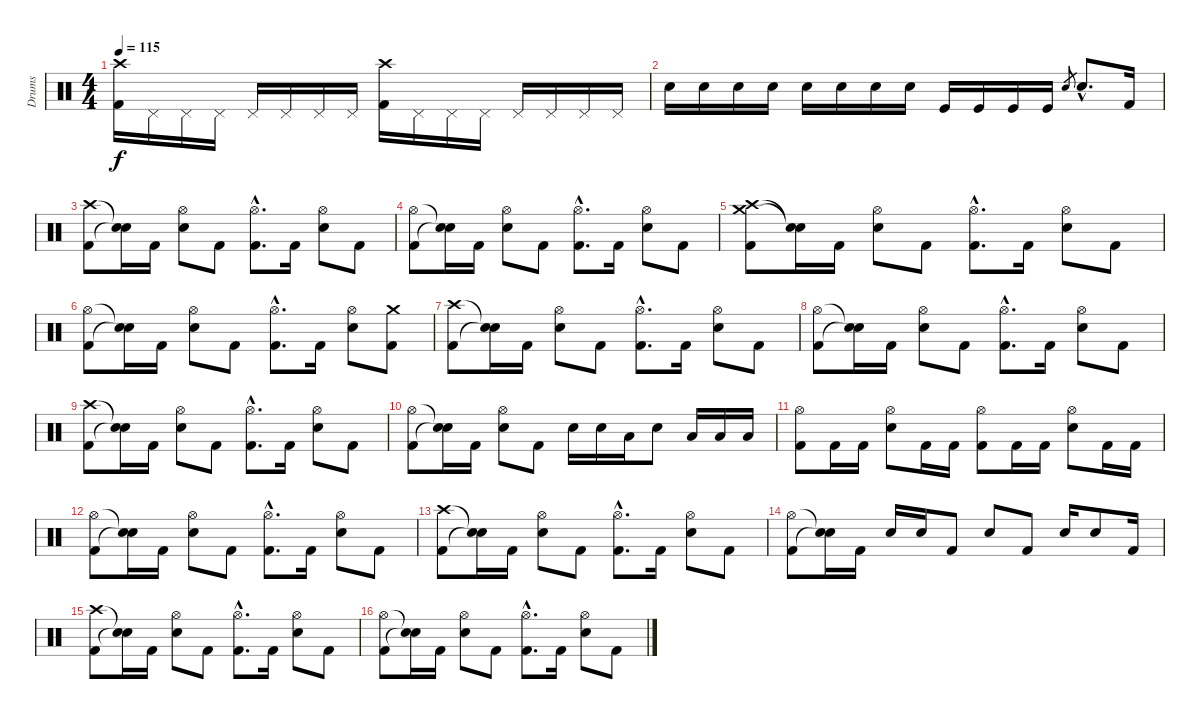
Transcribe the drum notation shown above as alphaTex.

\track ("Drums" "Drums") {instrument percussion}
\staff {score}
\articulation defaults
\ts (4 4)
\tempo 115
\clef neutral
\ks c
("Crash high (hit)" "Kick (hit) 2").16{dy f} "Pedal Hi-Hat (hit)".16 "Pedal Hi-Hat (hit)".16 "Pedal Hi-Hat (hit)".16 "Pedal Hi-Hat (hit)".16 "Pedal Hi-Hat (hit)".16 "Pedal Hi-Hat (hit)".16 "Pedal Hi-Hat (hit)".16 ("Crash high (hit)" "Kick (hit) 2").16 "Pedal Hi-Hat (hit)".16 "Pedal Hi-Hat (hit)".16 "Pedal Hi-Hat (hit)".16 "Pedal Hi-Hat (hit)".16 "Pedal Hi-Hat (hit)".16 "Pedal Hi-Hat (hit)".16 "Pedal Hi-Hat (hit)".16 |
"Electric Snare (hit)".16 "Electric Snare (hit)".16 "Electric Snare (hit)".16 "Electric Snare (hit)".16 "Snare (hit) 2".16 "Snare (hit) 2".16 "Snare (hit) 2".16 "Snare (hit) 2".16 "Kick (hit)".16 "Kick (hit)".16 "Kick (hit)".16 "Kick (hit)".16 "Snare (hit) 2".8{gr} "Snare (hit) 2"{hac}.8{d} "Kick (hit) 2".16 |
("Crash high (hit)" "Kick (hit) 2").8 ("Snare (hit)"{t} "Snare (hit)"{t}).16 "Kick (hit) 2".16 ("Hi-Hat (open)" "Snare (hit) 2").8 "Kick (hit) 2".8 ("Hi-Hat (open)"{hac} "Kick (hit) 2"{hac}).8{d} "Kick (hit) 2".16 ("Hi-Hat (open)" "Snare (hit) 2").8 "Kick (hit) 2".8 |
("Hi-Hat (open)" "Kick (hit) 2").8 ("Snare (hit)"{t} "Snare (hit)"{t}).16 "Kick (hit) 2".16 ("Hi-Hat (open)" "Snare (hit) 2").8 "Kick (hit) 2".8 ("Hi-Hat (open)"{hac} "Kick (hit) 2"{hac}).8{d} "Kick (hit) 2".16 ("Hi-Hat (open)" "Snare (hit) 2").8 "Kick (hit) 2".8 |
("Crash high (hit)" "Crash medium (hit)" "Kick (hit) 2").8 ("Snare (hit)"{t} "Snare (hit)"{t}).16 "Kick (hit) 2".16 ("Hi-Hat (open)" "Snare (hit) 2").8 "Kick (hit) 2".8 ("Hi-Hat (open)"{hac} "Kick (hit) 2"{hac}).8{d} "Kick (hit) 2".16 ("Hi-Hat (open)" "Snare (hit) 2").8 "Kick (hit) 2".8 |
("Hi-Hat (open)" "Kick (hit) 2").8 ("Snare (hit)"{t} "Snare (hit)"{t}).16 "Kick (hit) 2".16 ("Hi-Hat (open)" "Snare (hit) 2").8 "Kick (hit) 2".8 ("Hi-Hat (open)"{hac} "Kick (hit) 2"{hac}).8{d} "Kick (hit) 2".16 ("Hi-Hat (open)" "Snare (hit) 2").8 ("Crash medium (hit)" "Kick (hit) 2").8 |
("Crash high (hit)" "Kick (hit) 2").8 ("Snare (hit)"{t} "Snare (hit)"{t}).16 "Kick (hit) 2".16 ("Hi-Hat (open)" "Snare (hit) 2").8 "Kick (hit) 2".8 ("Hi-Hat (open)"{hac} "Kick (hit) 2"{hac}).8{d} "Kick (hit) 2".16 ("Hi-Hat (open)" "Snare (hit) 2").8 "Kick (hit) 2".8 |
("Hi-Hat (open)" "Kick (hit) 2").8 ("Snare (hit)"{t} "Snare (hit)"{t}).16 "Kick (hit) 2".16 ("Hi-Hat (open)" "Snare (hit) 2").8 "Kick (hit) 2".8 ("Hi-Hat (open)"{hac} "Kick (hit) 2"{hac}).8{d} "Kick (hit) 2".16 ("Hi-Hat (open)" "Snare (hit) 2").8 "Kick (hit) 2".8 |
("Crash high (hit)" "Kick (hit) 2").8 ("Snare (hit)"{t} "Snare (hit)"{t}).16 "Kick (hit) 2".16 ("Hi-Hat (open)" "Snare (hit) 2").8 "Kick (hit) 2".8 ("Hi-Hat (open)"{hac} "Kick (hit) 2"{hac}).8{d} "Kick (hit) 2".16 ("Hi-Hat (open)" "Snare (hit) 2").8 "Kick (hit) 2".8 |
("Hi-Hat (open)" "Kick (hit) 2").8 ("Snare (hit)"{t} "Snare (hit)"{t}).16 "Kick (hit) 2".16 ("Hi-Hat (open)" "Snare (hit) 2").8 "Kick (hit) 2".8 "Snare (hit) 2".16 "Snare (hit) 2".16 "Low Tom (hit)".16 "Snare (hit) 2".8 "Low Tom (hit)".16 "Low Tom (hit)".16 "Low Tom (hit)".16 |
("Hi-Hat (open)" "Kick (hit) 2").8 "Kick (hit) 2".16 "Kick (hit) 2".16 ("Hi-Hat (open)" "Snare (hit) 2").8 "Kick (hit) 2".16 "Kick (hit) 2".16 ("Hi-Hat (open)" "Kick (hit) 2").8 "Kick (hit) 2".16 "Kick (hit) 2".16 ("Hi-Hat (open)" "Snare (hit) 2").8 "Kick (hit) 2".16 "Kick (hit) 2".16 |
("Hi-Hat (open)" "Kick (hit) 2").8 ("Snare (hit)"{t} "Snare (hit)"{t}).16 "Kick (hit) 2".16 ("Hi-Hat (open)" "Snare (hit) 2").8 "Kick (hit) 2".8 ("Hi-Hat (open)"{hac} "Kick (hit) 2"{hac}).8{d} "Kick (hit) 2".16 ("Hi-Hat (open)" "Snare (hit) 2").8 "Kick (hit) 2".8 |
("Crash high (hit)" "Kick (hit) 2").8 ("Snare (hit)"{t} "Snare (hit)"{t}).16 "Kick (hit) 2".16 ("Hi-Hat (open)" "Snare (hit) 2").8 "Kick (hit) 2".8 ("Hi-Hat (open)"{hac} "Kick (hit) 2"{hac}).8{d} "Kick (hit) 2".16 ("Hi-Hat (open)" "Snare (hit) 2").8 "Kick (hit) 2".8 |
("Hi-Hat (open)" "Kick (hit) 2").8 ("Snare (hit)"{t} "Snare (hit)"{t}).16 "Kick (hit) 2".16 "Snare (hit) 2".16 "Snare (hit) 2".16 "Kick (hit) 2".8 "Snare (hit) 2".8 "Kick (hit) 2".8 "Snare (hit) 2".16 "Snare (hit) 2".8 "Kick (hit) 2".16 |
("Crash high (hit)" "Kick (hit) 2").8 ("Snare (hit)"{t} "Snare (hit)"{t}).16 "Kick (hit) 2".16 ("Hi-Hat (open)" "Snare (hit) 2").8 "Kick (hit) 2".8 ("Hi-Hat (open)"{hac} "Kick (hit) 2"{hac}).8{d} "Kick (hit) 2".16 ("Hi-Hat (open)" "Snare (hit) 2").8 "Kick (hit) 2".8 |
("Hi-Hat (open)" "Kick (hit) 2").8 ("Snare (hit)"{t} "Snare (hit)"{t}).16 "Kick (hit) 2".16 ("Hi-Hat (open)" "Snare (hit) 2").8 "Kick (hit) 2".8 ("Hi-Hat (open)"{hac} "Kick (hit) 2"{hac}).8{d} "Kick (hit) 2".16 ("Hi-Hat (open)" "Snare (hit) 2").8 "Kick (hit) 2".8
